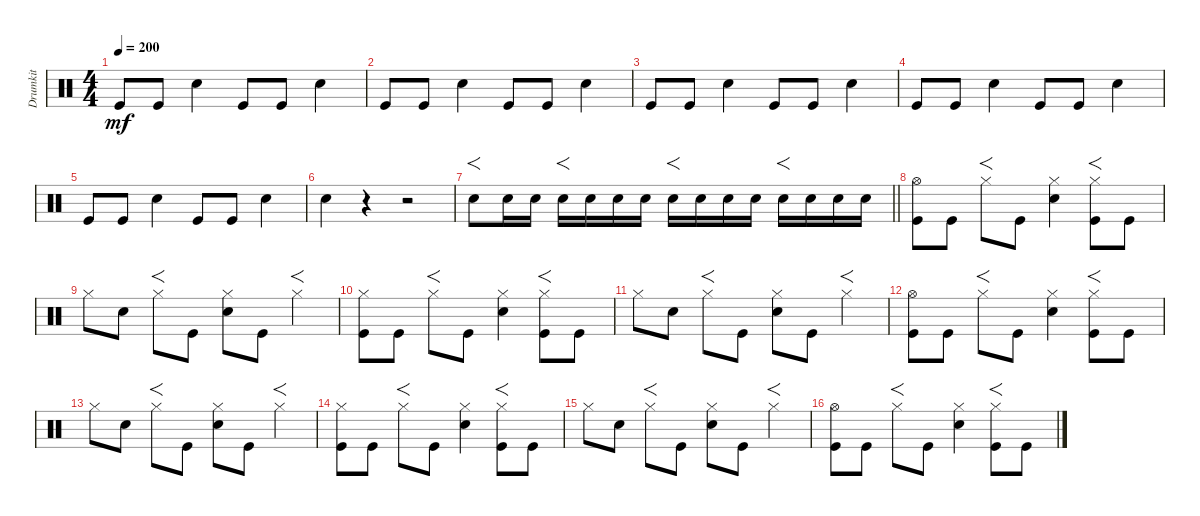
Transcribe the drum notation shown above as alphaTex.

\track ("Drumkit" "Drumkit") {instrument percussion}
\staff {score}
\articulation defaults
\ts (4 4)
\tempo 200
\clef neutral
\ks c "Kick (hit)".8{dy mf} "Kick (hit)".8 "Snare (hit) 2".4 "Kick (hit)".8 "Kick (hit)".8 "Snare (hit) 2".4
|
"Kick (hit)".8 "Kick (hit)".8 "Snare (hit) 2".4 "Kick (hit)".8 "Kick (hit)".8 "Snare (hit) 2".4 |
"Kick (hit)".8 "Kick (hit)".8 "Snare (hit) 2".4 "Kick (hit)".8 "Kick (hit)".8 "Snare (hit) 2".4 |
"Kick (hit)".8 "Kick (hit)".8 "Snare (hit) 2".4 "Kick (hit)".8 "Kick (hit)".8 "Snare (hit) 2".4 |
"Kick (hit)".8 "Kick (hit)".8 "Snare (hit) 2".4 "Kick (hit)".8 "Kick (hit)".8 "Snare (hit) 2".4 |
"Snare (hit) 2".4 r.4 r.2 |
\barLineRight lightlight "Snare (hit) 2".8{f} "Snare (hit) 2".16 "Snare (hit) 2".16 "Snare (hit) 2".16{f} "Snare (hit) 2".16 "Snare (hit) 2".16 "Snare (hit) 2".16 "Snare (hit) 2".16{f} "Snare (hit) 2".16 "Snare (hit) 2".16 "Snare (hit) 2".16 "Snare (hit) 2".16{f} "Snare (hit) 2".16 "Snare (hit) 2".16 "Snare (hit) 2".16
|
("Hi-Hat (open)" "Kick (hit)").8 "Kick (hit)".8 "Hi-Hat (closed)".8{f} "Kick (hit)".8 ("Hi-Hat (closed)" "Snare (hit) 2").4 ("Hi-Hat (closed)" "Kick (hit)").8{f} "Kick (hit)".8 |
"Hi-Hat (closed)".8 "Snare (hit) 2".8 "Hi-Hat (closed)".8{f} "Kick (hit)".8 ("Hi-Hat (closed)" "Snare (hit) 2").8 "Kick (hit)".8 "Hi-Hat (closed)".4{f} |
("Kick (hit)" "Hi-Hat (closed)").8 "Kick (hit)".8 "Hi-Hat (closed)".8{f} "Kick (hit)".8 ("Hi-Hat (closed)" "Snare (hit) 2").4 ("Hi-Hat (closed)" "Kick (hit)").8{f} "Kick (hit)".8 |
"Hi-Hat (closed)".8 "Snare (hit) 2".8 "Hi-Hat (closed)".8{f} "Kick (hit)".8 ("Hi-Hat (closed)" "Snare (hit) 2").8 "Kick (hit)".8 "Hi-Hat (closed)".4{f} |
("Hi-Hat (open)" "Kick (hit)").8 "Kick (hit)".8 "Hi-Hat (closed)".8{f} "Kick (hit)".8 ("Hi-Hat (closed)" "Snare (hit) 2").4 ("Hi-Hat (closed)" "Kick (hit)").8{f} "Kick (hit)".8 |
"Hi-Hat (closed)".8 "Snare (hit) 2".8 "Hi-Hat (closed)".8{f} "Kick (hit)".8 ("Hi-Hat (closed)" "Snare (hit) 2").8 "Kick (hit)".8 "Hi-Hat (closed)".4{f} |
("Kick (hit)" "Hi-Hat (closed)").8 "Kick (hit)".8 "Hi-Hat (closed)".8{f} "Kick (hit)".8 ("Hi-Hat (closed)" "Snare (hit) 2").4 ("Hi-Hat (closed)" "Kick (hit)").8{f} "Kick (hit)".8 |
"Hi-Hat (closed)".8 "Snare (hit) 2".8 "Hi-Hat (closed)".8{f} "Kick (hit)".8 ("Hi-Hat (closed)" "Snare (hit) 2").8 "Kick (hit)".8 "Hi-Hat (closed)".4{f} |
("Hi-Hat (open)" "Kick (hit)").8 "Kick (hit)".8 "Hi-Hat (closed)".8{f} "Kick (hit)".8 ("Hi-Hat (closed)" "Snare (hit) 2").4 ("Hi-Hat (closed)" "Kick (hit)").8{f} "Kick (hit)".8
